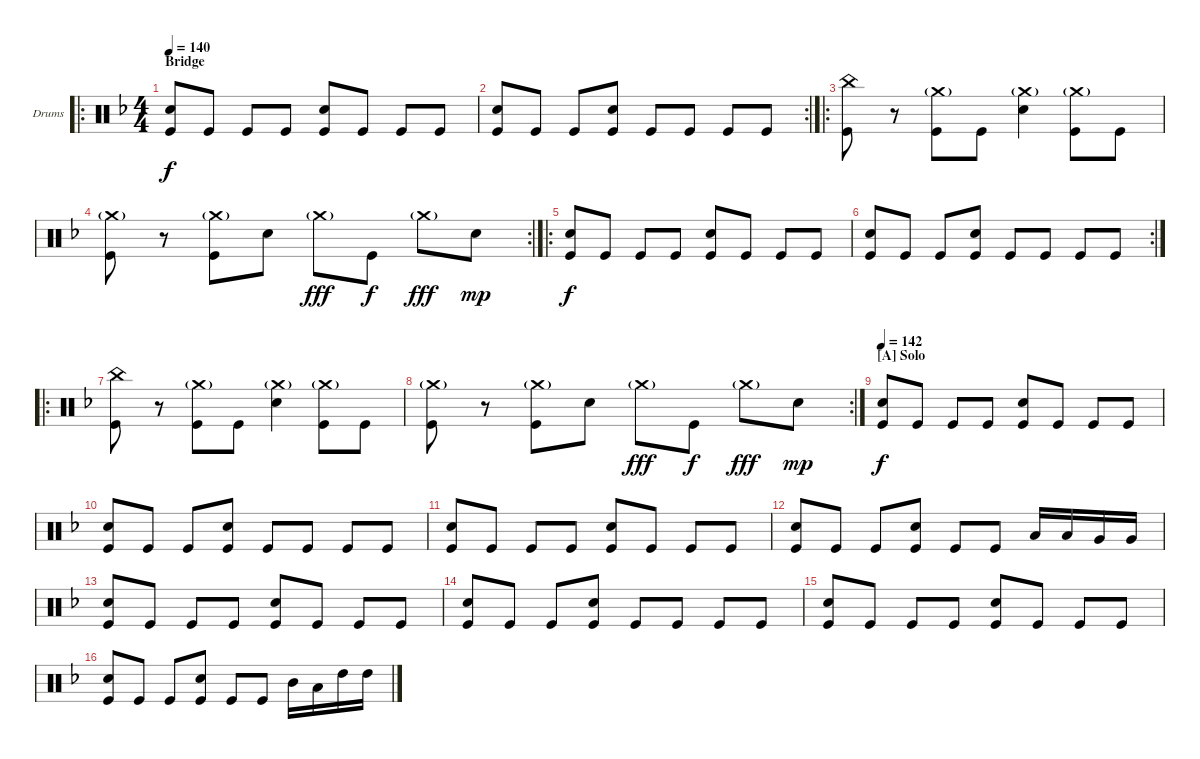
\defaultSystemsLayout 4
\bracketExtendMode groupsimilarinstruments
\firstSystemTrackNameOrientation horizontal
\otherSystemsTrackNameOrientation horizontal
\track ("Mark" "Drums") {instrument percussion}
\staff {score}
\articulation defaults
\ro
\ts (4 4)
\section ("" "Bridge")
\tempo 140
\clef neutral
\scale
0.343434
\ks f
("Snare (hit) 2" "Kick (hit)").8{dy f} "Kick (hit)".8 "Kick (hit)".8 "Kick (hit)".8 ("Snare (hit) 2" "Kick (hit)").8 "Kick (hit)".8 "Kick (hit)".8 "Kick (hit)".8 |
\rc 2
\scale
0.313131 ("Snare (hit) 2" "Kick (hit)").8 "Kick (hit)".8 "Kick (hit)".8 ("Snare (hit) 2" "Kick (hit)").8 "Kick (hit)".8 "Kick (hit)".8 "Kick (hit)".8 "Kick (hit)".8 |
\ro
\scale
0.343434 ("China (hit)" "Kick (hit)").8 r.8 ("Crash medium (hit)"{g} "Kick (hit)").8 "Kick (hit)".8 ("Crash medium (hit)"{g} "Snare (hit) 2").4 ("Crash medium (hit)"{g} "Kick (hit)").8 "Kick (hit)".8 |
\rc 2
\scale
0.322917 ("Crash medium (hit)"{g} "Kick (hit)").8 r.8 ("Crash medium (hit)"{g} "Kick (hit)").8 "Snare (hit) 2".8 "Crash medium (hit)"{g}.8{dy fff} "Kick (hit)".8{dy f} "Crash medium (hit)"{g}.8{dy fff} "Snare (hit) 2".8{dy mp} |
\ro
\scale
0.354167 ("Snare (hit) 2" "Kick (hit)").8{dy f} "Kick (hit)".8 "Kick (hit)".8 "Kick (hit)".8 ("Snare (hit) 2" "Kick (hit)").8 "Kick (hit)".8 "Kick (hit)".8 "Kick (hit)".8 |
\rc 2
\scale
0.322917 ("Snare (hit) 2" "Kick (hit)").8 "Kick (hit)".8 "Kick (hit)".8 ("Snare (hit) 2" "Kick (hit)").8 "Kick (hit)".8 "Kick (hit)".8 "Kick (hit)".8 "Kick (hit)".8 |
\ro
\scale
0.365591 ("China (hit)" "Kick (hit)").8 r.8 ("Crash medium (hit)"{g} "Kick (hit)").8 "Kick (hit)".8 ("Crash medium (hit)"{g} "Snare (hit) 2").4 ("Crash medium (hit)"{g} "Kick (hit)").8 "Kick (hit)".8 |
\rc 2
\scale
0.333333 ("Crash medium (hit)"{g} "Kick (hit)").8 r.8 ("Crash medium (hit)"{g} "Kick (hit)").8 "Snare (hit) 2".8 "Crash medium (hit)"{g}.8{dy fff} "Kick (hit)".8{dy f} "Crash medium (hit)"{g}.8{dy fff} "Snare (hit) 2".8{dy mp} |
\section ("A" "Solo")
\tempo 142
\scale
0.301075 ("Snare (hit) 2" "Kick (hit)").8{dy f} "Kick (hit)".8 "Kick (hit)".8 "Kick (hit)".8 ("Snare (hit) 2" "Kick (hit)").8 "Kick (hit)".8 "Kick (hit)".8 "Kick (hit)".8 |
\scale
0.333333 ("Snare (hit) 2" "Kick (hit)").8 "Kick (hit)".8 "Kick (hit)".8 ("Snare (hit) 2" "Kick (hit)").8 "Kick (hit)".8 "Kick (hit)".8 "Kick (hit)".8 "Kick (hit)".8 |
\scale
0.333333 ("Snare (hit) 2" "Kick (hit)").8 "Kick (hit)".8 "Kick (hit)".8 "Kick (hit)".8 ("Snare (hit) 2" "Kick (hit)").8 "Kick (hit)".8 "Kick (hit)".8 "Kick (hit)".8 |
\scale
0.333333 ("Snare (hit) 2" "Kick (hit)").8 "Kick (hit)".8 "Kick (hit)".8 ("Snare (hit) 2" "Kick (hit)").8 "Kick (hit)".8 "Kick (hit)".8 "Low Tom (hit)".16 "Low Tom (hit)".16 "Very Low Tom (hit)".16 "Very Low Tom (hit)".16 |
\scale
0.333333 ("Snare (hit) 2" "Kick (hit)").8 "Kick (hit)".8 "Kick (hit)".8 "Kick (hit)".8 ("Snare (hit) 2" "Kick (hit)").8 "Kick (hit)".8 "Kick (hit)".8 "Kick (hit)".8 |
\scale
0.333333 ("Snare (hit) 2" "Kick (hit)").8 "Kick (hit)".8 "Kick (hit)".8 ("Snare (hit) 2" "Kick (hit)").8 "Kick (hit)".8 "Kick (hit)".8 "Kick (hit)".8 "Kick (hit)".8 |
\scale
0.333333 ("Snare (hit) 2" "Kick (hit)").8 "Kick (hit)".8 "Kick (hit)".8 "Kick (hit)".8 ("Snare (hit) 2" "Kick (hit)").8 "Kick (hit)".8 "Kick (hit)".8 "Kick (hit)".8 |
\scale
0.333333 ("Snare (hit) 2" "Kick (hit)").8 "Kick (hit)".8 "Kick (hit)".8 ("Snare (hit) 2" "Kick (hit)").8 "Kick (hit)".8 "Kick (hit)".8 "Mid Tom (hit)".16 "Low Tom (hit)".16 "High Tom (hit)".16 "High Tom (hit)".16
